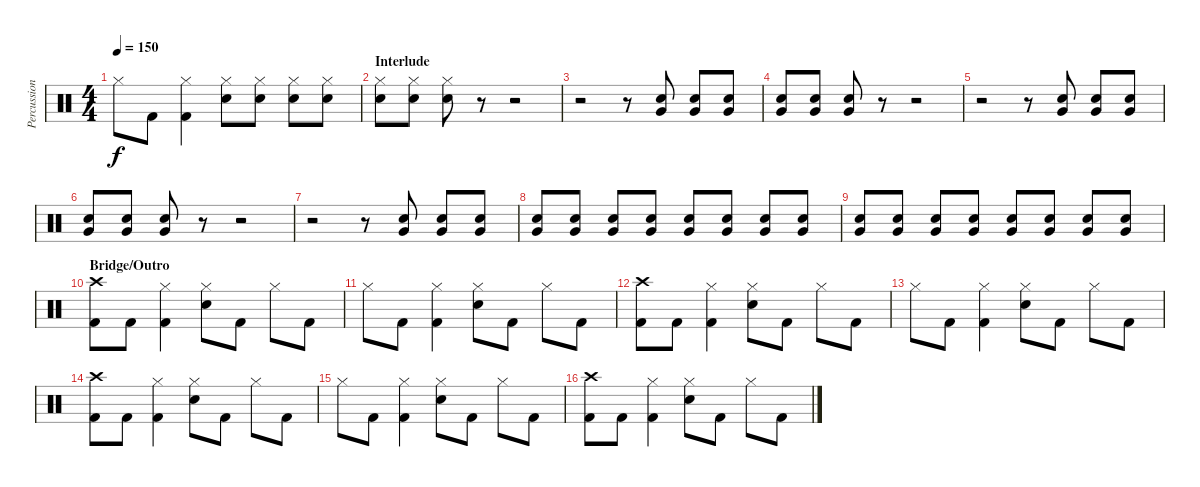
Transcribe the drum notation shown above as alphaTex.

\track ("Percussion" "Percussion") {instrument percussion}
\staff {score}
\articulation defaults
\ts (4 4)
\tempo 150
\clef neutral
\ks c "Hi-Hat (closed)".8{dy f} "Kick (hit) 2".8
("Hi-Hat (closed)" "Kick (hit) 2").4 ("Hi-Hat (closed)" "Electric Snare (hit)").8 ("Hi-Hat (closed)" "Electric Snare (hit)").8 ("Hi-Hat (closed)" "Electric Snare (hit)").8 ("Hi-Hat (closed)" "Electric Snare (hit)").8 |
\section ("" "Interlude")
("Hi-Hat (closed)" "Electric Snare (hit)").8 ("Hi-Hat (closed)" "Electric Snare (hit)").8 ("Hi-Hat (closed)" "Electric Snare (hit)").8 r.8 r.2 |
r.2 r.8 ("Very Low Tom (hit)" "Electric Snare (hit)").8 ("Very Low Tom (hit)" "Electric Snare (hit)").8 ("Very Low Tom (hit)" "Electric Snare (hit)").8 |
("Very Low Tom (hit)" "Electric Snare (hit)").8 ("Very Low Tom (hit)" "Electric Snare (hit)").8 ("Very Low Tom (hit)" "Electric Snare (hit)").8 r.8 r.2 |
r.2 r.8 ("Very Low Tom (hit)" "Electric Snare (hit)").8 ("Very Low Tom (hit)" "Electric Snare (hit)").8 ("Very Low Tom (hit)" "Electric Snare (hit)").8 |
("Very Low Tom (hit)" "Electric Snare (hit)").8 ("Very Low Tom (hit)" "Electric Snare (hit)").8 ("Very Low Tom (hit)" "Electric Snare (hit)").8 r.8 r.2 |
r.2 r.8 ("Very Low Tom (hit)" "Electric Snare (hit)").8 ("Very Low Tom (hit)" "Electric Snare (hit)").8 ("Very Low Tom (hit)" "Electric Snare (hit)").8 |
("Very Low Tom (hit)" "Electric Snare (hit)").8 ("Very Low Tom (hit)" "Electric Snare (hit)").8 ("Very Low Tom (hit)" "Electric Snare (hit)").8 ("Very Low Tom (hit)" "Electric Snare (hit)").8 ("Very Low Tom (hit)" "Electric Snare (hit)").8 ("Very Low Tom (hit)" "Electric Snare (hit)").8 ("Very Low Tom (hit)" "Electric Snare (hit)").8 ("Very Low Tom (hit)" "Electric Snare (hit)").8 |
("Very Low Tom (hit)" "Electric Snare (hit)").8 ("Very Low Tom (hit)" "Electric Snare (hit)").8 ("Very Low Tom (hit)" "Electric Snare (hit)").8 ("Very Low Tom (hit)" "Electric Snare (hit)").8 ("Very Low Tom (hit)" "Electric Snare (hit)").8 ("Very Low Tom (hit)" "Electric Snare (hit)").8 ("Very Low Tom (hit)" "Electric Snare (hit)").8 ("Very Low Tom (hit)" "Electric Snare (hit)").8 |
\section ("" "Bridge/Outro")
("Crash high (hit)" "Kick (hit) 2").8 "Kick (hit) 2".8 ("Hi-Hat (closed)" "Kick (hit) 2").4 ("Hi-Hat (closed)" "Electric Snare (hit)").8 "Kick (hit) 2".8 "Hi-Hat (closed)".8 "Kick (hit) 2".8 |
"Hi-Hat (closed)".8 "Kick (hit) 2".8 ("Hi-Hat (closed)" "Kick (hit) 2").4 ("Hi-Hat (closed)" "Electric Snare (hit)").8 "Kick (hit) 2".8 "Hi-Hat (closed)".8 "Kick (hit) 2".8 |
("Crash high (hit)" "Kick (hit) 2").8 "Kick (hit) 2".8 ("Hi-Hat (closed)" "Kick (hit) 2").4 ("Hi-Hat (closed)" "Electric Snare (hit)").8 "Kick (hit) 2".8 "Hi-Hat (closed)".8 "Kick (hit) 2".8 |
"Hi-Hat (closed)".8 "Kick (hit) 2".8 ("Hi-Hat (closed)" "Kick (hit) 2").4 ("Hi-Hat (closed)" "Electric Snare (hit)").8 "Kick (hit) 2".8 "Hi-Hat (closed)".8 "Kick (hit) 2".8 |
("Crash high (hit)" "Kick (hit) 2").8 "Kick (hit) 2".8 ("Hi-Hat (closed)" "Kick (hit) 2").4 ("Hi-Hat (closed)" "Electric Snare (hit)").8 "Kick (hit) 2".8 "Hi-Hat (closed)".8 "Kick (hit) 2".8 |
"Hi-Hat (closed)".8 "Kick (hit) 2".8 ("Hi-Hat (closed)" "Kick (hit) 2").4 ("Hi-Hat (closed)" "Electric Snare (hit)").8 "Kick (hit) 2".8 "Hi-Hat (closed)".8 "Kick (hit) 2".8 |
("Crash high (hit)" "Kick (hit) 2").8 "Kick (hit) 2".8 ("Hi-Hat (closed)" "Kick (hit) 2").4 ("Hi-Hat (closed)" "Electric Snare (hit)").8 "Kick (hit) 2".8 "Hi-Hat (closed)".8 "Kick (hit) 2".8
